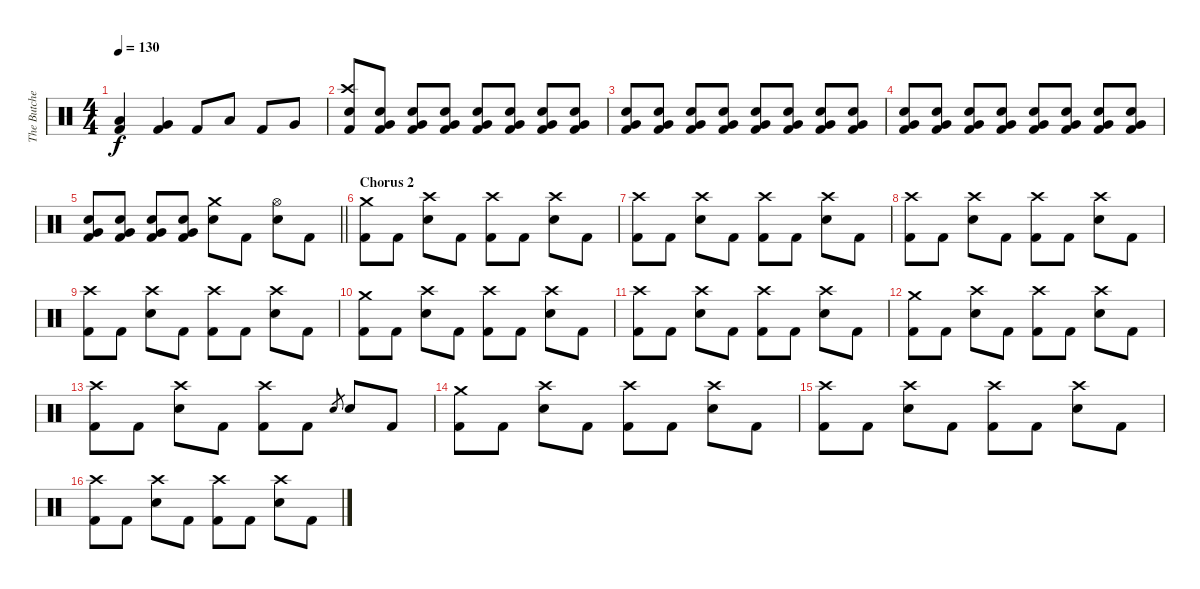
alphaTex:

\track ("The Butcher (Drums)" "The Butche") {instrument percussion}
\staff {score}
\articulation defaults
\ts (4 4)
\tempo 130
\clef neutral
\ks c
("Low Floor Tom (hit)" "Kick (hit) 2").4{dy f} ("Very Low Tom (hit)" "Kick (hit) 2").4 "Kick (hit) 2".8 "Low Tom (hit)".8 "Kick (hit) 2".8 "Very Low Tom (hit)".8 |
("Crash high (hit)" "Electric Snare (hit)" "Kick (hit) 2").8 ("Very Low Tom (hit)" "Electric Snare (hit)" "Kick (hit) 2").8{volume 6} ("Very Low Tom (hit)" "Electric Snare (hit)" "Kick (hit) 2").8{volume 13} ("Very Low Tom (hit)" "Electric Snare (hit)" "Kick (hit) 2").8 ("Very Low Tom (hit)" "Electric Snare (hit)" "Kick (hit) 2").8 ("Very Low Tom (hit)" "Electric Snare (hit)" "Kick (hit) 2").8 ("Very Low Tom (hit)" "Electric Snare (hit)" "Kick (hit) 2").8 ("Very Low Tom (hit)" "Electric Snare (hit)" "Kick (hit) 2").8 |
("Very Low Tom (hit)" "Electric Snare (hit)" "Kick (hit) 2").8 ("Very Low Tom (hit)" "Electric Snare (hit)" "Kick (hit) 2").8 ("Very Low Tom (hit)" "Electric Snare (hit)" "Kick (hit) 2").8 ("Very Low Tom (hit)" "Electric Snare (hit)" "Kick (hit) 2").8 ("Very Low Tom (hit)" "Electric Snare (hit)" "Kick (hit) 2").8 ("Very Low Tom (hit)" "Electric Snare (hit)" "Kick (hit) 2").8 ("Very Low Tom (hit)" "Electric Snare (hit)" "Kick (hit) 2").8 ("Very Low Tom (hit)" "Electric Snare (hit)" "Kick (hit) 2").8 |
("Very Low Tom (hit)" "Electric Snare (hit)" "Kick (hit) 2").8 ("Very Low Tom (hit)" "Electric Snare (hit)" "Kick (hit) 2").8 ("Very Low Tom (hit)" "Electric Snare (hit)" "Kick (hit) 2").8 ("Very Low Tom (hit)" "Electric Snare (hit)" "Kick (hit) 2").8 ("Very Low Tom (hit)" "Electric Snare (hit)" "Kick (hit) 2").8 ("Very Low Tom (hit)" "Electric Snare (hit)" "Kick (hit) 2").8 ("Very Low Tom (hit)" "Electric Snare (hit)" "Kick (hit) 2").8 ("Very Low Tom (hit)" "Electric Snare (hit)" "Kick (hit) 2").8 |
\barLineRight lightlight
("Very Low Tom (hit)" "Electric Snare (hit)" "Kick (hit) 2").8 ("Very Low Tom (hit)" "Electric Snare (hit)" "Kick (hit) 2").8 ("Very Low Tom (hit)" "Electric Snare (hit)" "Kick (hit) 2").8 ("Very Low Tom (hit)" "Electric Snare (hit)" "Kick (hit) 2").8 ("Crash medium (hit)" "Electric Snare (hit)").8 "Kick (hit) 2".8 ("Hi-Hat (open)" "Electric Snare (hit)").8 "Kick (hit) 2".8 |
\section ("" "Chorus 2")
("Crash medium (hit)" "Kick (hit) 2").8 "Kick (hit) 2".8 ("Crash high (hit)" "Electric Snare (hit)").8 "Kick (hit) 2".8 ("Crash high (hit)" "Kick (hit) 2").8 "Kick (hit) 2".8 ("Crash high (hit)" "Electric Snare (hit)").8 "Kick (hit) 2".8 |
("Crash high (hit)" "Kick (hit) 2").8 "Kick (hit) 2".8 ("Crash high (hit)" "Electric Snare (hit)").8 "Kick (hit) 2".8 ("Crash high (hit)" "Kick (hit) 2").8 "Kick (hit) 2".8 ("Crash high (hit)" "Electric Snare (hit)").8 "Kick (hit) 2".8 |
("Crash high (hit)" "Kick (hit) 2").8 "Kick (hit) 2".8 ("Crash high (hit)" "Electric Snare (hit)").8 "Kick (hit) 2".8 ("Crash high (hit)" "Kick (hit) 2").8 "Kick (hit) 2".8 ("Crash high (hit)" "Electric Snare (hit)").8 "Kick (hit) 2".8 |
("Crash high (hit)" "Kick (hit) 2").8 "Kick (hit) 2".8 ("Crash high (hit)" "Electric Snare (hit)").8 "Kick (hit) 2".8 ("Crash high (hit)" "Kick (hit) 2").8 "Kick (hit) 2".8 ("Crash high (hit)" "Electric Snare (hit)").8 "Kick (hit) 2".8 |
("Crash medium (hit)" "Kick (hit) 2").8 "Kick (hit) 2".8 ("Crash high (hit)" "Electric Snare (hit)").8 "Kick (hit) 2".8 ("Crash high (hit)" "Kick (hit) 2").8 "Kick (hit) 2".8 ("Crash high (hit)" "Electric Snare (hit)").8 "Kick (hit) 2".8 |
("Crash high (hit)" "Kick (hit) 2").8 "Kick (hit) 2".8 ("Crash high (hit)" "Electric Snare (hit)").8 "Kick (hit) 2".8 ("Crash high (hit)" "Kick (hit) 2").8 "Kick (hit) 2".8 ("Crash high (hit)" "Electric Snare (hit)").8 "Kick (hit) 2".8 |
("Crash medium (hit)" "Kick (hit) 2").8 "Kick (hit) 2".8 ("Crash high (hit)" "Electric Snare (hit)").8 "Kick (hit) 2".8 ("Crash high (hit)" "Kick (hit) 2").8 "Kick (hit) 2".8 ("Crash high (hit)" "Electric Snare (hit)").8 "Kick (hit) 2".8 |
("Crash high (hit)" "Kick (hit) 2").8 "Kick (hit) 2".8 ("Crash high (hit)" "Electric Snare (hit)").8 "Kick (hit) 2".8 ("Crash high (hit)" "Kick (hit) 2").8 "Kick (hit) 2".8 "Electric Snare (hit)".8{gr} "Electric Snare (hit)".8 "Kick (hit) 2".8 |
("Crash medium (hit)" "Kick (hit) 2").8 "Kick (hit) 2".8 ("Crash high (hit)" "Electric Snare (hit)").8 "Kick (hit) 2".8 ("Crash high (hit)" "Kick (hit) 2").8 "Kick (hit) 2".8 ("Crash high (hit)" "Electric Snare (hit)").8 "Kick (hit) 2".8 |
("Crash high (hit)" "Kick (hit) 2").8 "Kick (hit) 2".8 ("Crash high (hit)" "Electric Snare (hit)").8 "Kick (hit) 2".8 ("Crash high (hit)" "Kick (hit) 2").8 "Kick (hit) 2".8 ("Crash high (hit)" "Electric Snare (hit)").8 "Kick (hit) 2".8 |
("Crash high (hit)" "Kick (hit) 2").8 "Kick (hit) 2".8 ("Crash high (hit)" "Electric Snare (hit)").8 "Kick (hit) 2".8 ("Crash high (hit)" "Kick (hit) 2").8 "Kick (hit) 2".8 ("Crash high (hit)" "Electric Snare (hit)").8 "Kick (hit) 2".8
